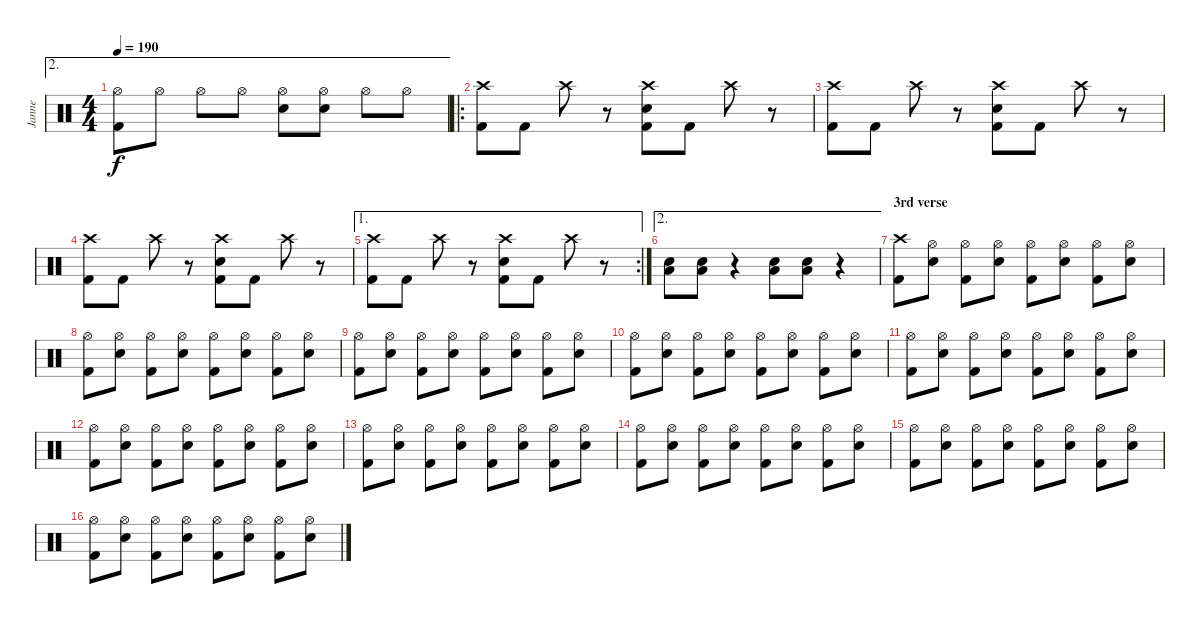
\track ("Janne" "Janne") {instrument percussion}
\staff {score}
\articulation defaults
\ae 2
\ts (4 4)
\tempo 190
\clef neutral
\ks c
("Hi-Hat (open)" "Kick (hit) 2").8{dy f} "Hi-Hat (open)".8 "Hi-Hat (open)".8 "Hi-Hat (open)".8 ("Hi-Hat (open)" "Electric Snare (hit)").8 ("Hi-Hat (open)" "Electric Snare (hit)").8 "Hi-Hat (open)".8 "Hi-Hat (open)".8 |
\ro
("Crash high (hit)" "Kick (hit) 2").8 "Kick (hit) 2".8 "Crash high (hit)".8 r.8 ("Crash high (hit)" "Electric Snare (hit)" "Kick (hit) 2").8 "Kick (hit) 2".8 "Crash high (hit)".8 r.8 |
("Crash high (hit)" "Kick (hit) 2").8 "Kick (hit) 2".8 "Crash high (hit)".8 r.8 ("Crash high (hit)" "Electric Snare (hit)" "Kick (hit) 2").8 "Kick (hit) 2".8 "Crash high (hit)".8 r.8 |
("Crash high (hit)" "Kick (hit) 2").8 "Kick (hit) 2".8 "Crash high (hit)".8 r.8 ("Crash high (hit)" "Electric Snare (hit)" "Kick (hit) 2").8 "Kick (hit) 2".8 "Crash high (hit)".8 r.8 |
\ae 1
\rc 2
("Crash high (hit)" "Kick (hit) 2").8 "Kick (hit) 2".8 "Crash high (hit)".8 r.8 ("Crash high (hit)" "Electric Snare (hit)" "Kick (hit) 2").8 "Kick (hit) 2".8 "Crash high (hit)".8 r.8 |
\ae 2
("Low Floor Tom (hit)" "Electric Snare (hit)").8 ("Low Floor Tom (hit)" "Electric Snare (hit)").8 r.4 ("Low Floor Tom (hit)" "Electric Snare (hit)").8 ("Low Floor Tom (hit)" "Electric Snare (hit)").8 r.4 |
\section ("" "3rd verse")
("Crash high (hit)" "Kick (hit) 2").8 ("Hi-Hat (open)" "Electric Snare (hit)").8 ("Hi-Hat (open)" "Kick (hit) 2").8 ("Hi-Hat (open)" "Electric Snare (hit)").8 ("Hi-Hat (open)" "Kick (hit) 2").8 ("Hi-Hat (open)" "Electric Snare (hit)").8 ("Hi-Hat (open)" "Kick (hit) 2").8 ("Hi-Hat (open)" "Electric Snare (hit)").8 |
("Hi-Hat (open)" "Kick (hit) 2").8 ("Hi-Hat (open)" "Electric Snare (hit)").8 ("Hi-Hat (open)" "Kick (hit) 2").8 ("Hi-Hat (open)" "Electric Snare (hit)").8 ("Hi-Hat (open)" "Kick (hit) 2").8 ("Hi-Hat (open)" "Electric Snare (hit)").8 ("Hi-Hat (open)" "Kick (hit) 2").8 ("Hi-Hat (open)" "Electric Snare (hit)").8 |
("Hi-Hat (open)" "Kick (hit) 2").8 ("Hi-Hat (open)" "Electric Snare (hit)").8 ("Hi-Hat (open)" "Kick (hit) 2").8 ("Hi-Hat (open)" "Electric Snare (hit)").8 ("Hi-Hat (open)" "Kick (hit) 2").8 ("Hi-Hat (open)" "Electric Snare (hit)").8 ("Hi-Hat (open)" "Kick (hit) 2").8 ("Hi-Hat (open)" "Electric Snare (hit)").8 |
("Hi-Hat (open)" "Kick (hit) 2").8 ("Hi-Hat (open)" "Electric Snare (hit)").8 ("Hi-Hat (open)" "Kick (hit) 2").8 ("Hi-Hat (open)" "Electric Snare (hit)").8 ("Hi-Hat (open)" "Kick (hit) 2").8 ("Hi-Hat (open)" "Electric Snare (hit)").8 ("Hi-Hat (open)" "Kick (hit) 2").8 ("Hi-Hat (open)" "Electric Snare (hit)").8 |
("Hi-Hat (open)" "Kick (hit) 2").8 ("Hi-Hat (open)" "Electric Snare (hit)").8 ("Hi-Hat (open)" "Kick (hit) 2").8 ("Hi-Hat (open)" "Electric Snare (hit)").8 ("Hi-Hat (open)" "Kick (hit) 2").8 ("Hi-Hat (open)" "Electric Snare (hit)").8 ("Hi-Hat (open)" "Kick (hit) 2").8 ("Hi-Hat (open)" "Electric Snare (hit)").8 |
("Hi-Hat (open)" "Kick (hit) 2").8 ("Hi-Hat (open)" "Electric Snare (hit)").8 ("Hi-Hat (open)" "Kick (hit) 2").8 ("Hi-Hat (open)" "Electric Snare (hit)").8 ("Hi-Hat (open)" "Kick (hit) 2").8 ("Hi-Hat (open)" "Electric Snare (hit)").8 ("Hi-Hat (open)" "Kick (hit) 2").8 ("Hi-Hat (open)" "Electric Snare (hit)").8 |
("Hi-Hat (open)" "Kick (hit) 2").8 ("Hi-Hat (open)" "Electric Snare (hit)").8 ("Hi-Hat (open)" "Kick (hit) 2").8 ("Hi-Hat (open)" "Electric Snare (hit)").8 ("Hi-Hat (open)" "Kick (hit) 2").8 ("Hi-Hat (open)" "Electric Snare (hit)").8 ("Hi-Hat (open)" "Kick (hit) 2").8 ("Hi-Hat (open)" "Electric Snare (hit)").8 |
("Hi-Hat (open)" "Kick (hit) 2").8 ("Hi-Hat (open)" "Electric Snare (hit)").8 ("Hi-Hat (open)" "Kick (hit) 2").8 ("Hi-Hat (open)" "Electric Snare (hit)").8 ("Hi-Hat (open)" "Kick (hit) 2").8 ("Hi-Hat (open)" "Electric Snare (hit)").8 ("Hi-Hat (open)" "Kick (hit) 2").8 ("Hi-Hat (open)" "Electric Snare (hit)").8 |
("Hi-Hat (open)" "Kick (hit) 2").8 ("Hi-Hat (open)" "Electric Snare (hit)").8 ("Hi-Hat (open)" "Kick (hit) 2").8 ("Hi-Hat (open)" "Electric Snare (hit)").8 ("Hi-Hat (open)" "Kick (hit) 2").8 ("Hi-Hat (open)" "Electric Snare (hit)").8 ("Hi-Hat (open)" "Kick (hit) 2").8 ("Hi-Hat (open)" "Electric Snare (hit)").8 |
("Hi-Hat (open)" "Kick (hit) 2").8 ("Hi-Hat (open)" "Electric Snare (hit)").8 ("Hi-Hat (open)" "Kick (hit) 2").8 ("Hi-Hat (open)" "Electric Snare (hit)").8 ("Hi-Hat (open)" "Kick (hit) 2").8 ("Hi-Hat (open)" "Electric Snare (hit)").8 ("Hi-Hat (open)" "Kick (hit) 2").8 ("Hi-Hat (open)" "Electric Snare (hit)").8
